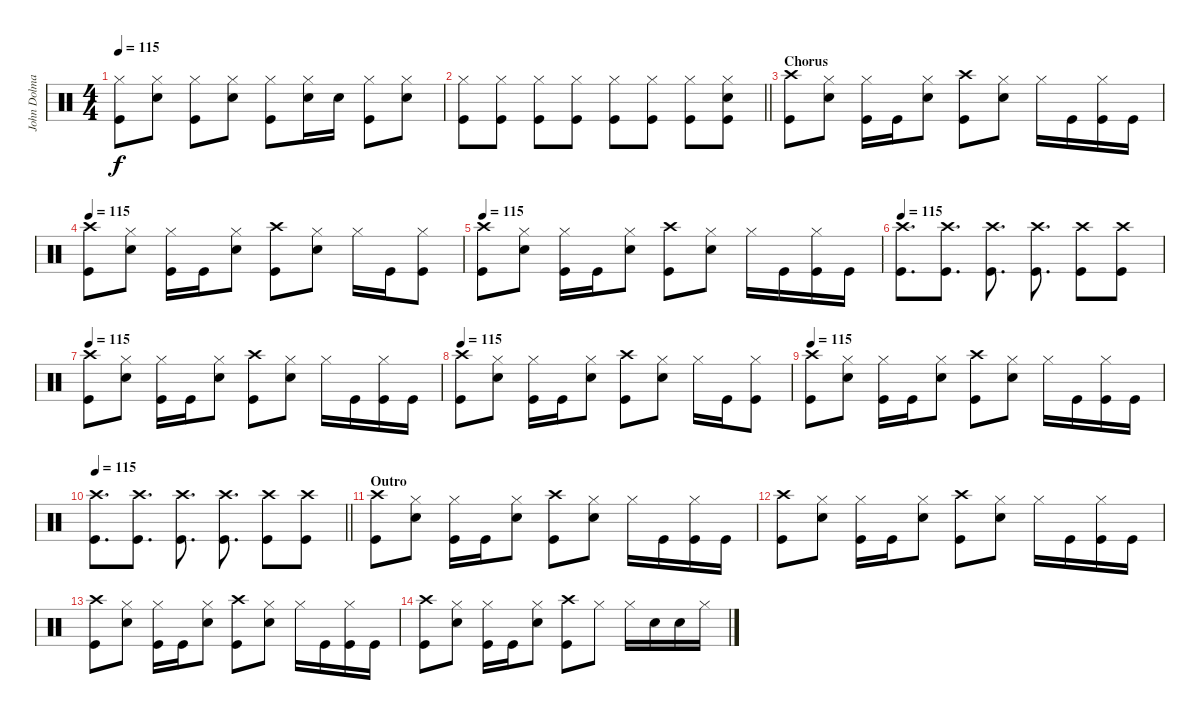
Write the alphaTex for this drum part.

\track ("John Dolmayan " "John Dolma") {instrument percussion}
\staff {score}
\articulation defaults
\ts (4 4)
\tempo 115
\clef neutral
\ks c
("Hi-Hat (closed)" "Kick (hit)").8{dy f} ("Hi-Hat (closed)" "Snare (hit) 2").8 ("Hi-Hat (closed)" "Kick (hit)").8 ("Hi-Hat (closed)" "Snare (hit) 2").8 ("Hi-Hat (closed)" "Kick (hit)").8 ("Hi-Hat (closed)" "Snare (hit) 2").16 "Snare (hit) 2".16 ("Hi-Hat (closed)" "Kick (hit)").8 ("Hi-Hat (closed)" "Snare (hit) 2").8 |
\barLineRight lightlight
("Hi-Hat (closed)" "Kick (hit)").8 ("Hi-Hat (closed)" "Kick (hit)").8 ("Hi-Hat (closed)" "Kick (hit)").8 ("Hi-Hat (closed)" "Kick (hit)").8 ("Hi-Hat (closed)" "Kick (hit)").8 ("Hi-Hat (closed)" "Kick (hit)").8 ("Hi-Hat (closed)" "Kick (hit)").8 ("Hi-Hat (closed)" "Snare (hit) 2" "Kick (hit)").8 |
\section ("" "Chorus")
("Crash high (hit)" "Kick (hit)").8 ("Hi-Hat (closed)" "Snare (hit) 2").8 ("Hi-Hat (closed)" "Kick (hit)").16 "Kick (hit)".16 ("Hi-Hat (closed)" "Snare (hit) 2").8 ("Crash high (hit)" "Kick (hit)").8 ("Hi-Hat (closed)" "Snare (hit) 2").8 "Hi-Hat (closed)".16 "Kick (hit)".16 ("Hi-Hat (closed)" "Kick (hit)").16 "Kick (hit)".16 |
\tempo 115
("Crash high (hit)" "Kick (hit)").8 ("Hi-Hat (closed)" "Snare (hit) 2").8 ("Hi-Hat (closed)" "Kick (hit)").16 "Kick (hit)".16 ("Hi-Hat (closed)" "Snare (hit) 2").8 ("Crash high (hit)" "Kick (hit)").8 ("Hi-Hat (closed)" "Snare (hit) 2").8 "Hi-Hat (closed)".16 "Kick (hit)".16 ("Hi-Hat (closed)" "Kick (hit)").8 |
\tempo 115
("Crash high (hit)" "Kick (hit)").8 ("Hi-Hat (closed)" "Snare (hit) 2").8 ("Hi-Hat (closed)" "Kick (hit)").16 "Kick (hit)".16 ("Hi-Hat (closed)" "Snare (hit) 2").8 ("Crash high (hit)" "Kick (hit)").8 ("Hi-Hat (closed)" "Snare (hit) 2").8 "Hi-Hat (closed)".16 "Kick (hit)".16 ("Hi-Hat (closed)" "Kick (hit)").16 "Kick (hit)".16 |
\tempo 115
("Crash high (hit)" "Kick (hit)").8{d} ("Crash high (hit)" "Kick (hit)").8{d} ("Crash high (hit)" "Kick (hit)").8{d} ("Crash high (hit)" "Kick (hit)").8{d} ("Crash high (hit)" "Kick (hit)").8 ("Crash high (hit)" "Kick (hit)").8 |
\tempo 115
("Crash high (hit)" "Kick (hit)").8 ("Hi-Hat (closed)" "Snare (hit) 2").8 ("Hi-Hat (closed)" "Kick (hit)").16 "Kick (hit)".16 ("Hi-Hat (closed)" "Snare (hit) 2").8 ("Crash high (hit)" "Kick (hit)").8 ("Hi-Hat (closed)" "Snare (hit) 2").8 "Hi-Hat (closed)".16 "Kick (hit)".16 ("Hi-Hat (closed)" "Kick (hit)").16 "Kick (hit)".16 |
\tempo 115
("Crash high (hit)" "Kick (hit)").8 ("Hi-Hat (closed)" "Snare (hit) 2").8 ("Hi-Hat (closed)" "Kick (hit)").16 "Kick (hit)".16 ("Hi-Hat (closed)" "Snare (hit) 2").8 ("Crash high (hit)" "Kick (hit)").8 ("Hi-Hat (closed)" "Snare (hit) 2").8 "Hi-Hat (closed)".16 "Kick (hit)".16 ("Hi-Hat (closed)" "Kick (hit)").8 |
\tempo 115
("Crash high (hit)" "Kick (hit)").8 ("Hi-Hat (closed)" "Snare (hit) 2").8 ("Hi-Hat (closed)" "Kick (hit)").16 "Kick (hit)".16 ("Hi-Hat (closed)" "Snare (hit) 2").8 ("Crash high (hit)" "Kick (hit)").8 ("Hi-Hat (closed)" "Snare (hit) 2").8 "Hi-Hat (closed)".16 "Kick (hit)".16 ("Hi-Hat (closed)" "Kick (hit)").16 "Kick (hit)".16 |
\tempo 115
\barLineRight lightlight
("Crash high (hit)" "Kick (hit)").8{d} ("Crash high (hit)" "Kick (hit)").8{d} ("Crash high (hit)" "Kick (hit)").8{d} ("Crash high (hit)" "Kick (hit)").8{d} ("Crash high (hit)" "Kick (hit)").8 ("Crash high (hit)" "Kick (hit)").8 |
\section ("" "Outro")
("Crash high (hit)" "Kick (hit)").8 ("Hi-Hat (closed)" "Snare (hit) 2").8 ("Hi-Hat (closed)" "Kick (hit)").16 "Kick (hit)".16 ("Hi-Hat (closed)" "Snare (hit) 2").8 ("Crash high (hit)" "Kick (hit)").8 ("Hi-Hat (closed)" "Snare (hit) 2").8 "Hi-Hat (closed)".16 "Kick (hit)".16 ("Hi-Hat (closed)" "Kick (hit)").16 "Kick (hit)".16 |
("Crash high (hit)" "Kick (hit)").8 ("Hi-Hat (closed)" "Snare (hit) 2").8 ("Hi-Hat (closed)" "Kick (hit)").16 "Kick (hit)".16 ("Hi-Hat (closed)" "Snare (hit) 2").8 ("Crash high (hit)" "Kick (hit)").8 ("Hi-Hat (closed)" "Snare (hit) 2").8 "Hi-Hat (closed)".16 "Kick (hit)".16 ("Hi-Hat (closed)" "Kick (hit)").16 "Kick (hit)".16 |
("Crash high (hit)" "Kick (hit)").8 ("Hi-Hat (closed)" "Snare (hit) 2").8 ("Hi-Hat (closed)" "Kick (hit)").16 "Kick (hit)".16 ("Hi-Hat (closed)" "Snare (hit) 2").8 ("Crash high (hit)" "Kick (hit)").8 ("Hi-Hat (closed)" "Snare (hit) 2").8 "Hi-Hat (closed)".16 "Kick (hit)".16 ("Hi-Hat (closed)" "Kick (hit)").16 "Kick (hit)".16 |
("Crash high (hit)" "Kick (hit)").8 ("Hi-Hat (closed)" "Snare (hit) 2").8 ("Hi-Hat (closed)" "Kick (hit)").16 "Kick (hit)".16 ("Hi-Hat (closed)" "Snare (hit) 2").8 ("Crash high (hit)" "Kick (hit)").8 "Hi-Hat (closed)".8 "Hi-Hat (closed)".16 "Snare (hit) 2".16 "Snare (hit) 2".16 "Hi-Hat (closed)".16
